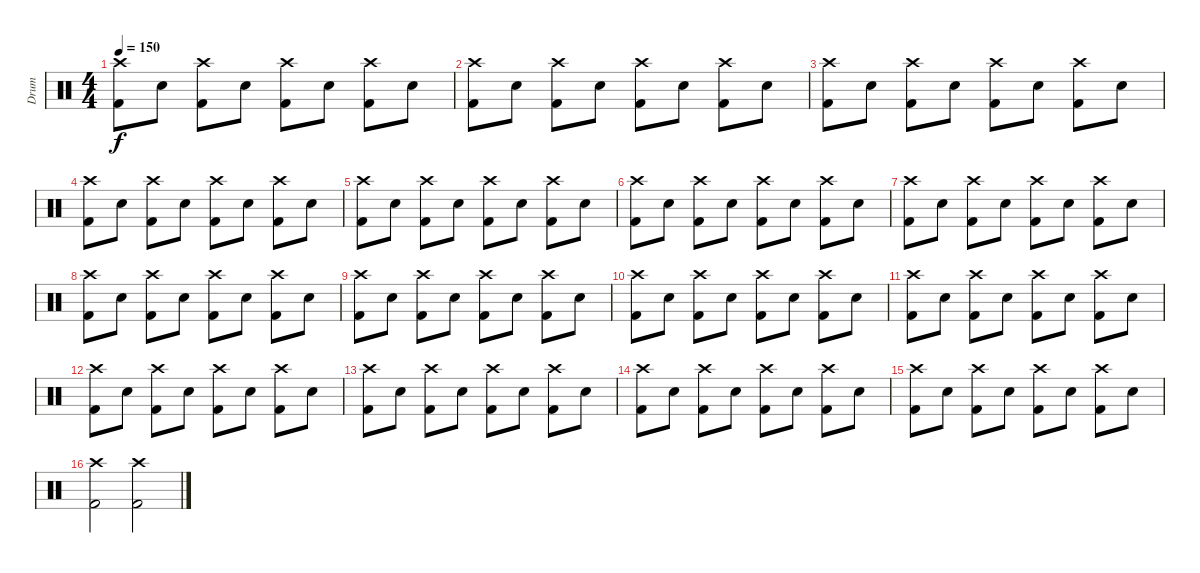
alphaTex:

\track ("Drum" "Drum") {instrument percussion}
\staff {score}
\articulation defaults
\ts (4 4)
\tempo 150
\clef neutral
\ks c
("Crash high (hit)" "Kick (hit) 2").8{dy f} "Snare (hit) 2".8 ("Crash high (hit)" "Kick (hit) 2").8 "Snare (hit) 2".8 ("Crash high (hit)" "Kick (hit) 2").8 "Snare (hit) 2".8 ("Crash high (hit)" "Kick (hit) 2").8 "Snare (hit) 2".8 |
("Crash high (hit)" "Kick (hit) 2").8 "Snare (hit) 2".8 ("Crash high (hit)" "Kick (hit) 2").8 "Snare (hit) 2".8 ("Crash high (hit)" "Kick (hit) 2").8 "Snare (hit) 2".8 ("Crash high (hit)" "Kick (hit) 2").8 "Snare (hit) 2".8 |
("Crash high (hit)" "Kick (hit) 2").8 "Snare (hit) 2".8 ("Crash high (hit)" "Kick (hit) 2").8 "Snare (hit) 2".8 ("Crash high (hit)" "Kick (hit) 2").8 "Snare (hit) 2".8 ("Crash high (hit)" "Kick (hit) 2").8 "Snare (hit) 2".8 |
("Crash high (hit)" "Kick (hit) 2").8 "Snare (hit) 2".8 ("Crash high (hit)" "Kick (hit) 2").8 "Snare (hit) 2".8 ("Crash high (hit)" "Kick (hit) 2").8 "Snare (hit) 2".8 ("Crash high (hit)" "Kick (hit) 2").8 "Electric Snare (hit)".8 |
("Crash high (hit)" "Kick (hit) 2").8 "Snare (hit) 2".8 ("Crash high (hit)" "Kick (hit) 2").8 "Snare (hit) 2".8 ("Crash high (hit)" "Kick (hit) 2").8 "Snare (hit) 2".8 ("Crash high (hit)" "Kick (hit) 2").8 "Snare (hit) 2".8 |
("Crash high (hit)" "Kick (hit) 2").8 "Snare (hit) 2".8 ("Crash high (hit)" "Kick (hit) 2").8 "Snare (hit) 2".8 ("Crash high (hit)" "Kick (hit) 2").8 "Snare (hit) 2".8 ("Crash high (hit)" "Kick (hit) 2").8 "Snare (hit) 2".8 |
("Crash high (hit)" "Kick (hit) 2").8 "Snare (hit) 2".8 ("Crash high (hit)" "Kick (hit) 2").8 "Snare (hit) 2".8 ("Crash high (hit)" "Kick (hit) 2").8 "Snare (hit) 2".8 ("Crash high (hit)" "Kick (hit) 2").8 "Snare (hit) 2".8 |
("Crash high (hit)" "Kick (hit) 2").8 "Snare (hit) 2".8 ("Crash high (hit)" "Kick (hit) 2").8 "Snare (hit) 2".8 ("Crash high (hit)" "Kick (hit) 2").8 "Snare (hit) 2".8 ("Crash high (hit)" "Kick (hit) 2").8 "Snare (hit) 2".8 |
("Crash high (hit)" "Kick (hit) 2").8 "Snare (hit) 2".8 ("Crash high (hit)" "Kick (hit) 2").8 "Snare (hit) 2".8 ("Crash high (hit)" "Kick (hit) 2").8 "Snare (hit) 2".8 ("Crash high (hit)" "Kick (hit) 2").8 "Snare (hit) 2".8 |
("Crash high (hit)" "Kick (hit) 2").8 "Snare (hit) 2".8 ("Crash high (hit)" "Kick (hit) 2").8 "Snare (hit) 2".8 ("Crash high (hit)" "Kick (hit) 2").8 "Snare (hit) 2".8 ("Crash high (hit)" "Kick (hit) 2").8 "Snare (hit) 2".8 |
("Crash high (hit)" "Kick (hit) 2").8 "Snare (hit) 2".8 ("Crash high (hit)" "Kick (hit) 2").8 "Snare (hit) 2".8 ("Crash high (hit)" "Kick (hit) 2").8 "Snare (hit) 2".8 ("Crash high (hit)" "Kick (hit) 2").8 "Snare (hit) 2".8 |
("Crash high (hit)" "Kick (hit) 2").8 "Snare (hit) 2".8 ("Crash high (hit)" "Kick (hit) 2").8 "Snare (hit) 2".8 ("Crash high (hit)" "Kick (hit) 2").8 "Snare (hit) 2".8 ("Crash high (hit)" "Kick (hit) 2").8 "Snare (hit) 2".8 |
("Crash high (hit)" "Kick (hit) 2").8 "Snare (hit) 2".8 ("Crash high (hit)" "Kick (hit) 2").8 "Snare (hit) 2".8 ("Crash high (hit)" "Kick (hit) 2").8 "Snare (hit) 2".8 ("Crash high (hit)" "Kick (hit) 2").8 "Snare (hit) 2".8 |
("Crash high (hit)" "Kick (hit) 2").8 "Snare (hit) 2".8 ("Crash high (hit)" "Kick (hit) 2").8 "Snare (hit) 2".8 ("Crash high (hit)" "Kick (hit) 2").8 "Snare (hit) 2".8 ("Crash high (hit)" "Kick (hit) 2").8 "Snare (hit) 2".8 |
("Crash high (hit)" "Kick (hit) 2").8 "Snare (hit) 2".8 ("Crash high (hit)" "Kick (hit) 2").8 "Snare (hit) 2".8 ("Crash high (hit)" "Kick (hit) 2").8 "Snare (hit) 2".8 ("Crash high (hit)" "Kick (hit) 2").8 "Snare (hit) 2".8 |
("Crash high (hit)" "Kick (hit) 2").2 ("Crash high (hit)" "Kick (hit) 2").2
